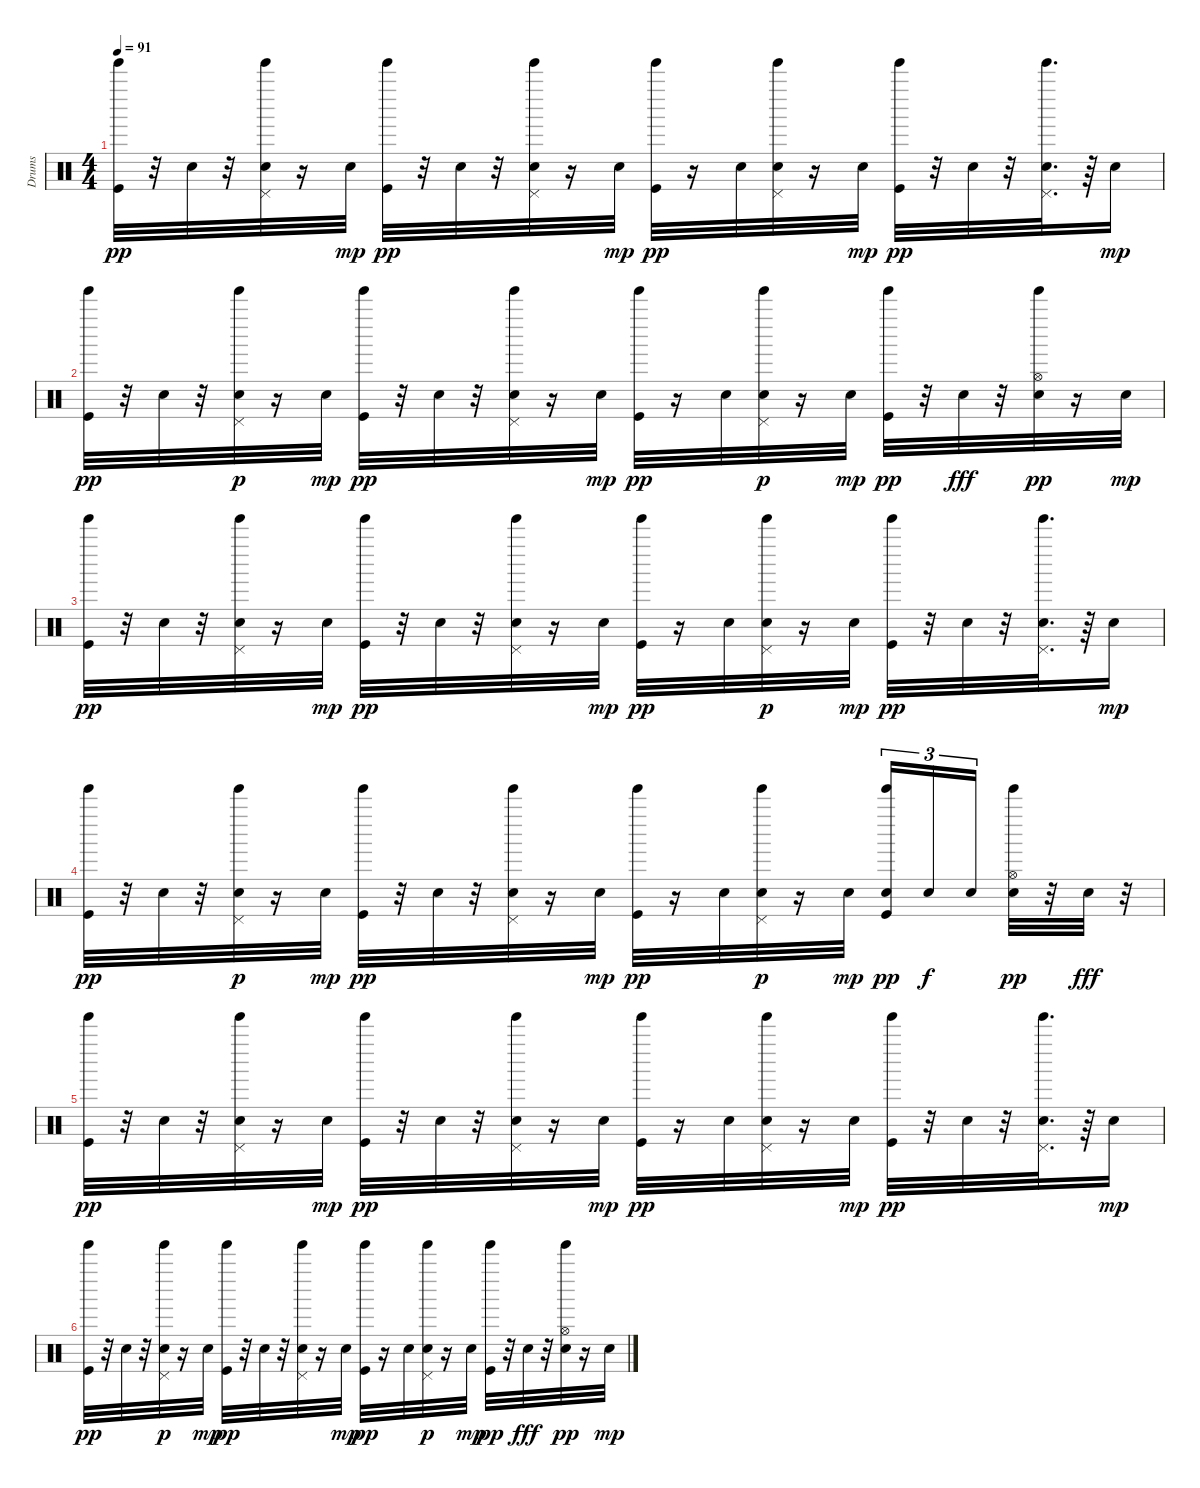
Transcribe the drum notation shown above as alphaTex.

\track ("Drums" "Drums") {instrument percussion}
\staff {score}
\articulation defaults
\ts (4 4)
\tempo 91
\clef neutral
\ks c
("Kick (hit)" "Tinkle Bell (hit)").32{dy pp} r.32 "Snare (hit) 2".32 r.32 ("Snare (hit) 2" "Pedal Hi-Hat (hit)" "Tinkle Bell (hit)").32 r.16 "Snare (hit) 2".32{dy mp} ("Kick (hit)" "Tinkle Bell (hit)").32{dy pp} r.32 "Snare (hit) 2".32 r.32 ("Snare (hit) 2" "Pedal Hi-Hat (hit)" "Tinkle Bell (hit)").32 r.16 "Snare (hit) 2".32{dy mp} ("Kick (hit)" "Tinkle Bell (hit)").32{dy pp} r.16 "Snare (hit) 2".32 ("Snare (hit) 2" "Pedal Hi-Hat (hit)" "Tinkle Bell (hit)").32 r.16 "Snare (hit) 2".32{dy mp} ("Kick (hit)" "Tinkle Bell (hit)").32{dy pp} r.32 "Snare (hit) 2".32 r.32 ("Snare (hit) 2" "Pedal Hi-Hat (hit)" "Tinkle Bell (hit)").32{d} r.64 "Snare (hit) 2".16{dy mp} |
("Kick (hit)" "Tinkle Bell (hit)").32{dy pp} r.32 "Snare (hit) 2".32 r.32 ("Snare (hit) 2" "Pedal Hi-Hat (hit)" "Tinkle Bell (hit)").32{dy p} r.16 "Snare (hit) 2".32{dy mp} ("Kick (hit)" "Tinkle Bell (hit)").32{dy pp} r.32 "Snare (hit) 2".32 r.32 ("Snare (hit) 2" "Pedal Hi-Hat (hit)" "Tinkle Bell (hit)").32 r.16 "Snare (hit) 2".32{dy mp} ("Kick (hit)" "Tinkle Bell (hit)").32{dy pp} r.16 "Snare (hit) 2".32 ("Snare (hit) 2" "Pedal Hi-Hat (hit)" "Tinkle Bell (hit)").32{dy p} r.16 "Snare (hit) 2".32{dy mp} ("Kick (hit)" "Tinkle Bell (hit)").32{dy pp} r.32 "Snare (hit) 2".32{dy fff} r.32 ("Snare (hit) 2" "Hi-Hat (open)" "Tinkle Bell (hit)").32{dy pp} r.16 "Snare (hit) 2".32{dy mp} |
("Kick (hit)" "Tinkle Bell (hit)").32{dy pp} r.32 "Snare (hit) 2".32 r.32 ("Snare (hit) 2" "Pedal Hi-Hat (hit)" "Tinkle Bell (hit)").32 r.16 "Snare (hit) 2".32{dy mp} ("Kick (hit)" "Tinkle Bell (hit)").32{dy pp} r.32 "Snare (hit) 2".32 r.32 ("Snare (hit) 2" "Pedal Hi-Hat (hit)" "Tinkle Bell (hit)").32 r.16 "Snare (hit) 2".32{dy mp} ("Kick (hit)" "Tinkle Bell (hit)").32{dy pp} r.16 "Snare (hit) 2".32 ("Snare (hit) 2" "Pedal Hi-Hat (hit)" "Tinkle Bell (hit)").32{dy p} r.16 "Snare (hit) 2".32{dy mp} ("Kick (hit)" "Tinkle Bell (hit)").32{dy pp} r.32 "Snare (hit) 2".32 r.32 ("Snare (hit) 2" "Pedal Hi-Hat (hit)" "Tinkle Bell (hit)").32{d} r.64 "Snare (hit) 2".16{dy mp} |
("Kick (hit)" "Tinkle Bell (hit)").32{dy pp} r.32 "Snare (hit) 2".32 r.32 ("Snare (hit) 2" "Pedal Hi-Hat (hit)" "Tinkle Bell (hit)").32{dy p} r.16 "Snare (hit) 2".32{dy mp} ("Kick (hit)" "Tinkle Bell (hit)").32{dy pp} r.32 "Snare (hit) 2".32 r.32 ("Snare (hit) 2" "Pedal Hi-Hat (hit)" "Tinkle Bell (hit)").32 r.16 "Snare (hit) 2".32{dy mp} ("Kick (hit)" "Tinkle Bell (hit)").32{dy pp} r.16 "Snare (hit) 2".32 ("Snare (hit) 2" "Pedal Hi-Hat (hit)" "Tinkle Bell (hit)").32{dy p} r.16 "Snare (hit) 2".32{dy mp} ("Kick (hit)" "Snare (hit) 2" "Tinkle Bell (hit)").16{tu (3 2) dy pp} "Snare (hit) 2".16{tu (3 2) dy f} "Snare (hit) 2".16{tu (3 2) beam splitsecondary} ("Snare (hit) 2" "Hi-Hat (open)" "Tinkle Bell (hit)").32{dy pp} r.32 "Snare (hit) 2".32{dy fff} r.32 |
("Kick (hit)" "Tinkle Bell (hit)").32{dy pp} r.32 "Snare (hit) 2".32 r.32 ("Snare (hit) 2" "Pedal Hi-Hat (hit)" "Tinkle Bell (hit)").32 r.16 "Snare (hit) 2".32{dy mp} ("Kick (hit)" "Tinkle Bell (hit)").32{dy pp} r.32 "Snare (hit) 2".32 r.32 ("Snare (hit) 2" "Pedal Hi-Hat (hit)" "Tinkle Bell (hit)").32 r.16 "Snare (hit) 2".32{dy mp} ("Kick (hit)" "Tinkle Bell (hit)").32{dy pp} r.16 "Snare (hit) 2".32 ("Snare (hit) 2" "Pedal Hi-Hat (hit)" "Tinkle Bell (hit)").32 r.16 "Snare (hit) 2".32{dy mp} ("Kick (hit)" "Tinkle Bell (hit)").32{dy pp} r.32 "Snare (hit) 2".32 r.32 ("Snare (hit) 2" "Pedal Hi-Hat (hit)" "Tinkle Bell (hit)").32{d} r.64 "Snare (hit) 2".16{dy mp} |
("Kick (hit)" "Tinkle Bell (hit)").32{dy pp} r.32 "Snare (hit) 2".32 r.32 ("Snare (hit) 2" "Pedal Hi-Hat (hit)" "Tinkle Bell (hit)").32{dy p} r.16 "Snare (hit) 2".32{dy mp} ("Kick (hit)" "Tinkle Bell (hit)").32{dy pp} r.32 "Snare (hit) 2".32 r.32 ("Snare (hit) 2" "Pedal Hi-Hat (hit)" "Tinkle Bell (hit)").32 r.16 "Snare (hit) 2".32{dy mp} ("Kick (hit)" "Tinkle Bell (hit)").32{dy pp} r.16 "Snare (hit) 2".32 ("Snare (hit) 2" "Pedal Hi-Hat (hit)" "Tinkle Bell (hit)").32{dy p} r.16 "Snare (hit) 2".32{dy mp} ("Kick (hit)" "Tinkle Bell (hit)").32{dy pp} r.32 "Snare (hit) 2".32{dy fff} r.32 ("Snare (hit) 2" "Hi-Hat (open)" "Tinkle Bell (hit)").32{dy pp} r.16 "Snare (hit) 2".32{dy mp}
